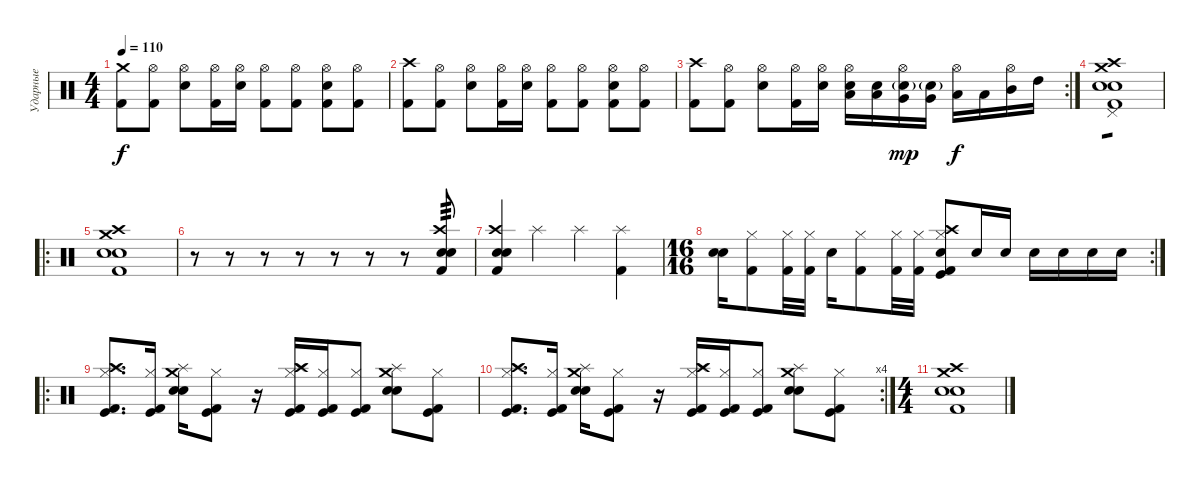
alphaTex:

\track ("Ударные" "Ударные") {instrument percussion}
\staff {score}
\articulation defaults
\ts (4 4)
\tempo 110
\clef neutral
\ks c
("Crash medium (hit)" "Kick (hit) 2").8{dy f} ("Hi-Hat (open)" "Kick (hit) 2").8 ("Hi-Hat (open)" "Snare (hit) 2").8 ("Hi-Hat (open)" "Kick (hit) 2").16 ("Hi-Hat (open)" "Snare (hit) 2").16 ("Hi-Hat (open)" "Kick (hit) 2").8 ("Hi-Hat (open)" "Kick (hit) 2").8 ("Hi-Hat (open)" "Snare (hit) 2" "Kick (hit) 2").8 ("Hi-Hat (open)" "Kick (hit) 2").8 |
("Crash high (hit)" "Kick (hit) 2").8 ("Hi-Hat (open)" "Kick (hit) 2").8 ("Hi-Hat (open)" "Snare (hit) 2").8 ("Hi-Hat (open)" "Kick (hit) 2").16 ("Hi-Hat (open)" "Snare (hit) 2").16 ("Hi-Hat (open)" "Kick (hit) 2").8 ("Hi-Hat (open)" "Kick (hit) 2").8 ("Hi-Hat (open)" "Snare (hit) 2" "Kick (hit) 2").8 ("Hi-Hat (open)" "Kick (hit) 2").8 |
\rc 2
("Crash high (hit)" "Kick (hit) 2").8 ("Hi-Hat (open)" "Kick (hit) 2").8 ("Hi-Hat (open)" "Snare (hit) 2").8 ("Hi-Hat (open)" "Kick (hit) 2").16 ("Hi-Hat (open)" "Snare (hit) 2").16 ("Electric Snare (hit)" "Low Floor Tom (hit)" "Hi-Hat (open)").16 ("Electric Snare (hit)" "Low Floor Tom (hit)").16 ("Electric Snare (hit)"{g} "Very Low Tom (hit)" "Hi-Hat (open)").16{dy mp} ("Electric Snare (hit)"{g} "Very Low Tom (hit)").16 ("Low Tom (hit)" "Hi-Hat (open)").16{dy f} "Low Tom (hit)".16 ("Mid Tom (hit)" "Hi-Hat (open)").16 "High Tom (hit)".16 |
("Crash high (hit)" "Crash medium (hit)" "Electric Snare (hit)" "Snare (hit) 2" "Pedal Hi-Hat (hit)" "Kick (hit) 2").1{tp 1} |
\ro
("Crash high (hit)" "Crash medium (hit)" "Electric Snare (hit)" "Snare (hit) 2" "Kick (hit) 2").1 |
r.8 r.8 r.8 r.8 r.8 r.8 r.8 ("Crash high (hit)" "Electric Snare (hit)" "Snare (hit) 2" "Kick (hit) 2").8{tp 3} |
("Crash high (hit)" "Electric Snare (hit)" "Snare (hit) 2" "Kick (hit) 2").4 "Splash (hit)".4 "Splash (hit)".4 ("Splash (hit)" "Kick (hit) 2").4 |
\rc 2
\ts (16 16)
("Electric Snare (hit)" "Snare (hit)").16 ("Hi-Hat (closed)" "Kick (hit) 2").8 ("Hi-Hat (closed)" "Kick (hit) 2").32 ("Hi-Hat (closed)" "Kick (hit) 2").32 "Electric Snare (hit)".16 ("Hi-Hat (closed)" "Kick (hit) 2").8 ("Kick (hit) 2" "Hi-Hat (closed)").32 ("Kick (hit) 2" "Hi-Hat (closed)").32 ("Crash high (hit)" "Electric Snare (hit)" "Hi-Hat (closed)" "Kick (hit)" "Kick (hit) 2").8 "Snare (hit) 2".16 "Snare (hit) 2".16 "Snare (hit) 2".16 "Snare (hit) 2".16 "Snare (hit) 2".16 "Snare (hit) 2".16 |
\ro
("Crash high (hit)" "Splash (hit)" "Hi-Hat (closed)" "Kick (hit)" "Kick (hit) 2").8{d} ("Hi-Hat (closed)" "Kick (hit)" "Kick (hit) 2").16 ("Crash medium (hit)" "Splash (hit)" "Snare (hit) 2" "Electric Snare (hit)").16 ("Hi-Hat (closed)" "Kick (hit)" "Kick (hit) 2").8 r.16 ("Crash high (hit)" "Splash (hit)" "Hi-Hat (closed)" "Kick (hit)" "Kick (hit) 2").16 ("Hi-Hat (closed)" "Kick (hit)" "Kick (hit) 2").16 ("Hi-Hat (closed)" "Kick (hit)" "Kick (hit) 2").8 ("Crash medium (hit)" "Splash (hit)" "Snare (hit) 2" "Electric Snare (hit)").8 ("Hi-Hat (closed)" "Kick (hit)" "Kick (hit) 2").8 |
\rc 4
("Crash high (hit)" "Splash (hit)" "Hi-Hat (closed)" "Kick (hit)" "Kick (hit) 2").8{d} ("Hi-Hat (closed)" "Kick (hit)" "Kick (hit) 2").16 ("Crash medium (hit)" "Splash (hit)" "Snare (hit) 2" "Electric Snare (hit)").16 ("Hi-Hat (closed)" "Kick (hit)" "Kick (hit) 2").8 r.16 ("Crash high (hit)" "Splash (hit)" "Hi-Hat (closed)" "Kick (hit)" "Kick (hit) 2").16 ("Hi-Hat (closed)" "Kick (hit)" "Kick (hit) 2").16 ("Hi-Hat (closed)" "Kick (hit)" "Kick (hit) 2").8 ("Crash medium (hit)" "Splash (hit)" "Snare (hit) 2" "Electric Snare (hit)").8 ("Hi-Hat (closed)" "Kick (hit)" "Kick (hit) 2").8 |
\ts (4 4)
("Crash high (hit)" "Crash medium (hit)" "Electric Snare (hit)" "Snare (hit) 2" "Kick (hit) 2").1
